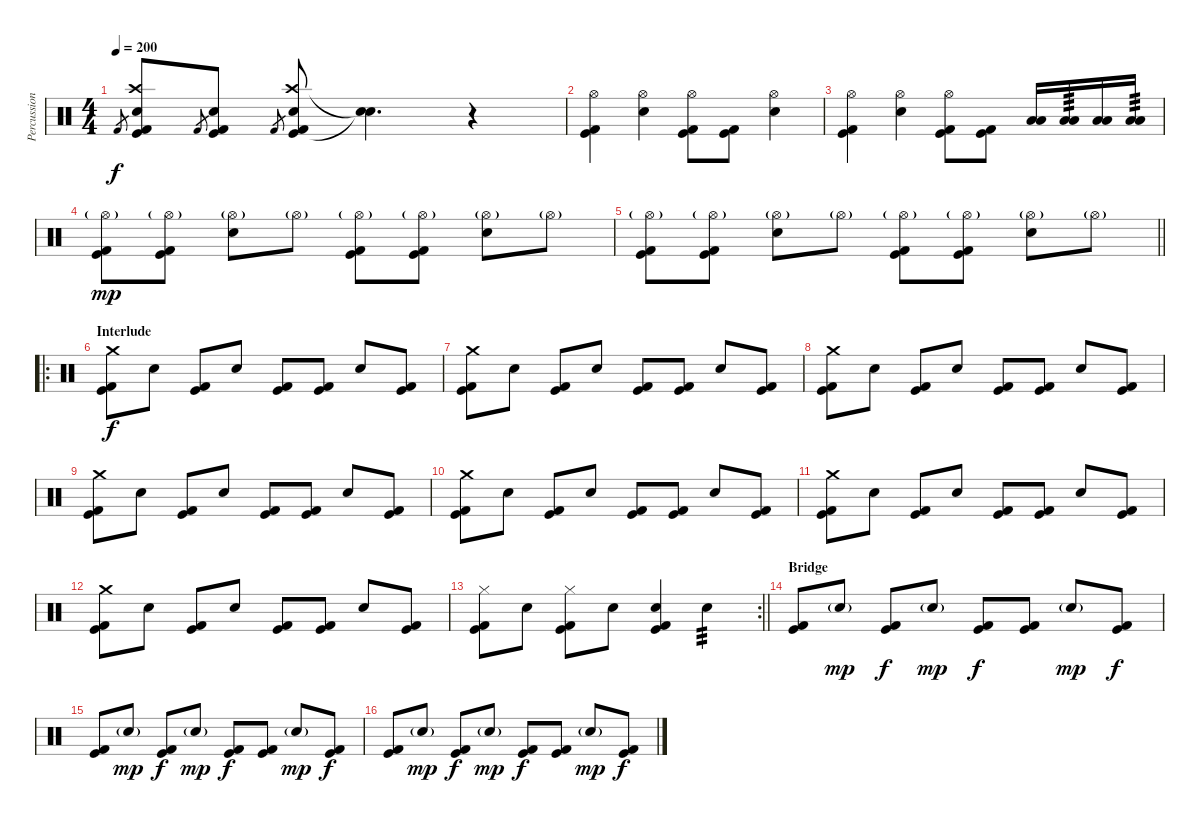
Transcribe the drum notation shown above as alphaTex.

\track ("Percussion" "Percussion") {instrument percussion}
\staff {score}
\articulation defaults
\ts (4 4)
\tempo 200
\clef neutral
\ks c "Kick (hit) 2".8{gr dy f}
("Crash high (hit)" "Kick (hit)" "Snare (hit) 2" "Kick (hit) 2").8 "Kick (hit) 2".8{gr} ("Kick (hit)" "Snare (hit) 2" "Kick (hit) 2").8 "Kick (hit) 2".8{gr} ("Crash high (hit)" "Kick (hit)" "Snare (hit) 2" "Kick (hit) 2").8 ("Snare (hit)"{t} "Snare (hit)"{t}).4{d} r.4 |
("Hi-Hat (open)" "Kick (hit)" "Kick (hit) 2").4 ("Hi-Hat (open)" "Snare (hit) 2").4 ("Hi-Hat (open)" "Kick (hit)" "Kick (hit) 2").8 ("Kick (hit)" "Kick (hit) 2").8 ("Hi-Hat (open)" "Snare (hit) 2").4 |
("Hi-Hat (open)" "Kick (hit)" "Kick (hit) 2").4 ("Hi-Hat (open)" "Snare (hit) 2").4 ("Hi-Hat (open)" "Kick (hit)" "Kick (hit) 2").8 ("Kick (hit)" "Kick (hit) 2").8 ("Low Tom (hit)" "Low Floor Tom (hit)").16 ("Low Tom (hit)" "Low Floor Tom (hit)").16{tp 3} ("Low Tom (hit)" "Low Floor Tom (hit)").16 ("Low Tom (hit)" "Low Floor Tom (hit)").16{tp 3} |
("Hi-Hat (open)"{g} "Kick (hit)" "Kick (hit) 2").8{dy mp} ("Hi-Hat (open)"{g} "Kick (hit)" "Kick (hit) 2").8 ("Hi-Hat (open)"{g} "Snare (hit) 2").8 "Hi-Hat (open)"{g}.8 ("Hi-Hat (open)"{g} "Kick (hit)" "Kick (hit) 2").8 ("Hi-Hat (open)"{g} "Kick (hit)" "Kick (hit) 2").8 ("Hi-Hat (open)"{g} "Snare (hit) 2").8 "Hi-Hat (open)"{g}.8 |
\barLineRight lightlight
("Hi-Hat (open)"{g} "Kick (hit)" "Kick (hit) 2").8 ("Hi-Hat (open)"{g} "Kick (hit)" "Kick (hit) 2").8 ("Hi-Hat (open)"{g} "Snare (hit) 2").8 "Hi-Hat (open)"{g}.8 ("Hi-Hat (open)"{g} "Kick (hit)" "Kick (hit) 2").8 ("Hi-Hat (open)"{g} "Kick (hit)" "Kick (hit) 2").8 ("Hi-Hat (open)"{g} "Snare (hit) 2").8 "Hi-Hat (open)"{g}.8 |
\ro
\section ("" "Interlude")
("Crash medium (hit)" "Kick (hit)" "Kick (hit) 2").8{dy f} "Snare (hit) 2".8 ("Kick (hit)" "Kick (hit) 2").8 "Snare (hit) 2".8 ("Kick (hit)" "Kick (hit) 2").8 ("Kick (hit)" "Kick (hit) 2").8 "Snare (hit) 2".8 ("Kick (hit)" "Kick (hit) 2").8 |
("Crash medium (hit)" "Kick (hit)" "Kick (hit) 2").8 "Snare (hit) 2".8 ("Kick (hit)" "Kick (hit) 2").8 "Snare (hit) 2".8 ("Kick (hit)" "Kick (hit) 2").8 ("Kick (hit)" "Kick (hit) 2").8 "Snare (hit) 2".8 ("Kick (hit)" "Kick (hit) 2").8 |
("Crash medium (hit)" "Kick (hit)" "Kick (hit) 2").8 "Snare (hit) 2".8 ("Kick (hit)" "Kick (hit) 2").8 "Snare (hit) 2".8 ("Kick (hit)" "Kick (hit) 2").8 ("Kick (hit)" "Kick (hit) 2").8 "Snare (hit) 2".8 ("Kick (hit)" "Kick (hit) 2").8 |
("Crash medium (hit)" "Kick (hit)" "Kick (hit) 2").8 "Snare (hit) 2".8 ("Kick (hit)" "Kick (hit) 2").8 "Snare (hit) 2".8 ("Kick (hit)" "Kick (hit) 2").8 ("Kick (hit)" "Kick (hit) 2").8 "Snare (hit) 2".8 ("Kick (hit)" "Kick (hit) 2").8 |
("Crash medium (hit)" "Kick (hit)" "Kick (hit) 2").8 "Snare (hit) 2".8 ("Kick (hit)" "Kick (hit) 2").8 "Snare (hit) 2".8 ("Kick (hit)" "Kick (hit) 2").8 ("Kick (hit)" "Kick (hit) 2").8 "Snare (hit) 2".8 ("Kick (hit)" "Kick (hit) 2").8 |
("Crash medium (hit)" "Kick (hit)" "Kick (hit) 2").8 "Snare (hit) 2".8 ("Kick (hit)" "Kick (hit) 2").8 "Snare (hit) 2".8 ("Kick (hit)" "Kick (hit) 2").8 ("Kick (hit)" "Kick (hit) 2").8 "Snare (hit) 2".8 ("Kick (hit)" "Kick (hit) 2").8 |
("Crash medium (hit)" "Kick (hit)" "Kick (hit) 2").8 "Snare (hit) 2".8 ("Kick (hit)" "Kick (hit) 2").8 "Snare (hit) 2".8 ("Kick (hit)" "Kick (hit) 2").8 ("Kick (hit)" "Kick (hit) 2").8 "Snare (hit) 2".8 ("Kick (hit)" "Kick (hit) 2").8 |
\rc 2
\barLineRight lightlight
("Hi-Hat (closed)" "Kick (hit)" "Kick (hit) 2").8 "Snare (hit) 2".8 ("Hi-Hat (closed)" "Kick (hit)" "Kick (hit) 2").8 "Snare (hit) 2".8 ("Kick (hit)" "Snare (hit) 2" "Kick (hit) 2").4 "Snare (hit) 2".4{tp 3} |
\section ("" "Bridge")
("Kick (hit)" "Kick (hit) 2").8{volume 9} "Snare (hit) 2"{g}.8{dy mp} ("Kick (hit)" "Kick (hit) 2").8{dy f} "Snare (hit) 2"{g}.8{dy mp} ("Kick (hit)" "Kick (hit) 2").8{dy f} ("Kick (hit)" "Kick (hit) 2").8 "Snare (hit) 2"{g}.8{dy mp} ("Kick (hit)" "Kick (hit) 2").8{dy f} |
("Kick (hit)" "Kick (hit) 2").8 "Snare (hit) 2"{g}.8{dy mp} ("Kick (hit)" "Kick (hit) 2").8{dy f} "Snare (hit) 2"{g}.8{dy mp} ("Kick (hit)" "Kick (hit) 2").8{dy f} ("Kick (hit)" "Kick (hit) 2").8 "Snare (hit) 2"{g}.8{dy mp} ("Kick (hit)" "Kick (hit) 2").8{dy f} |
("Kick (hit)" "Kick (hit) 2").8 "Snare (hit) 2"{g}.8{dy mp} ("Kick (hit)" "Kick (hit) 2").8{dy f} "Snare (hit) 2"{g}.8{dy mp} ("Kick (hit)" "Kick (hit) 2").8{dy f} ("Kick (hit)" "Kick (hit) 2").8 "Snare (hit) 2"{g}.8{dy mp} ("Kick (hit)" "Kick (hit) 2").8{dy f}
